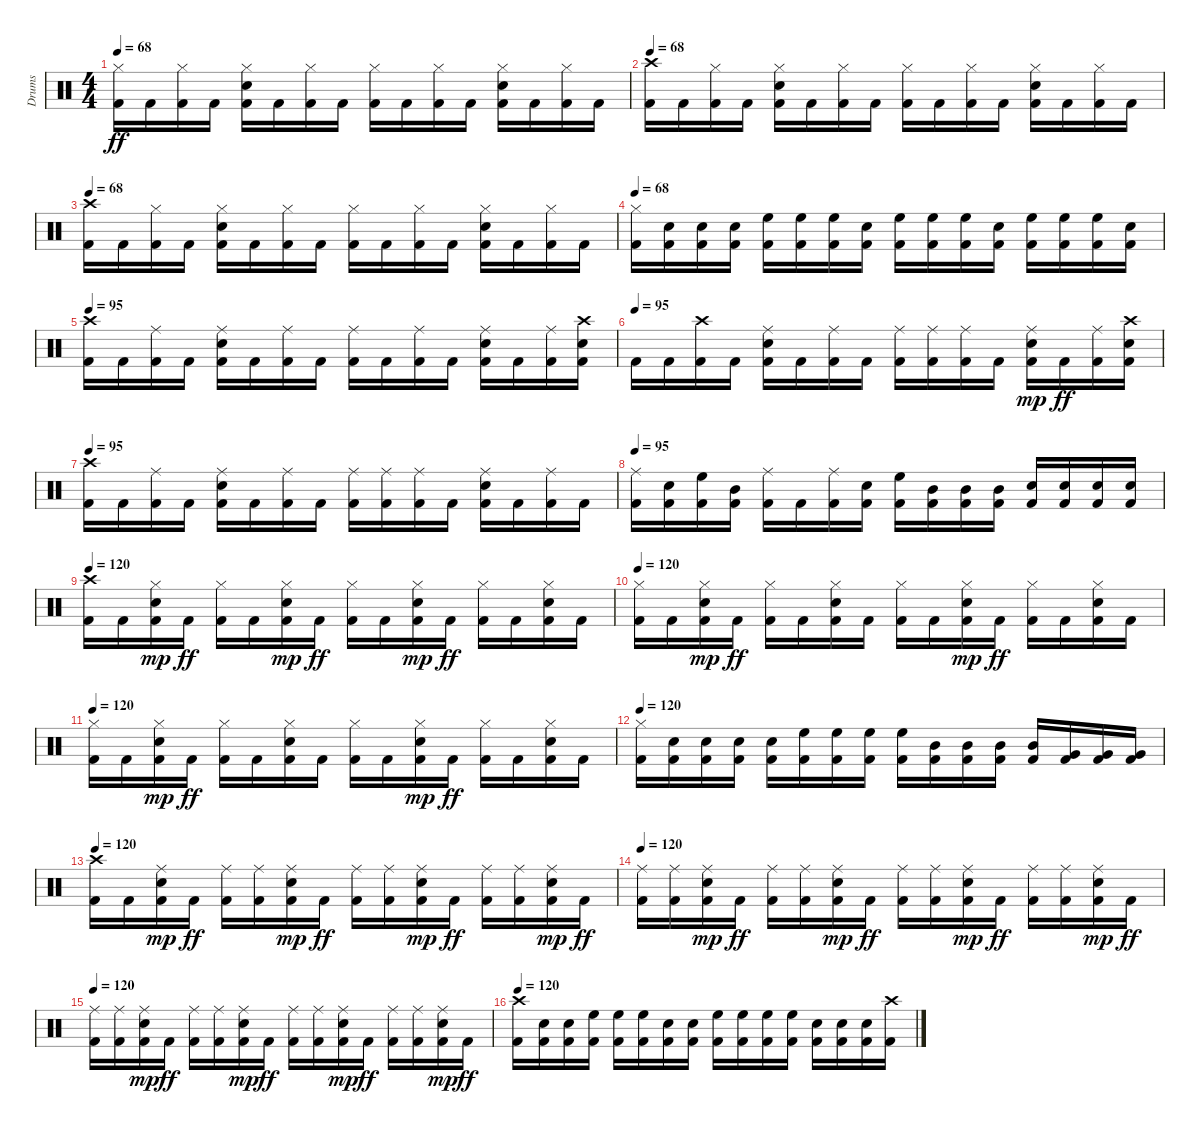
\track ("Drums" "Drums") {instrument percussion}
\staff {score}
\articulation defaults
\ts (4 4)
\tempo 68
\clef neutral
\ks c
("Hi-Hat (closed)" "Kick (hit) 2").16{dy ff} "Kick (hit) 2".16 ("Hi-Hat (closed)" "Kick (hit) 2").16 "Kick (hit) 2".16 ("Kick (hit) 2" "Snare (hit) 2" "Hi-Hat (closed)").16 "Kick (hit) 2".16 ("Hi-Hat (closed)" "Kick (hit) 2").16 "Kick (hit) 2".16 ("Hi-Hat (closed)" "Kick (hit) 2").16 "Kick (hit) 2".16 ("Hi-Hat (closed)" "Kick (hit) 2").16 "Kick (hit) 2".16 ("Kick (hit) 2" "Snare (hit) 2" "Hi-Hat (closed)").16 "Kick (hit) 2".16 ("Hi-Hat (closed)" "Kick (hit) 2").16 "Kick (hit) 2".16 |
\tempo 68
("Crash high (hit)" "Kick (hit) 2").16 "Kick (hit) 2".16 ("Hi-Hat (closed)" "Kick (hit) 2").16 "Kick (hit) 2".16 ("Kick (hit) 2" "Snare (hit) 2" "Hi-Hat (closed)").16 "Kick (hit) 2".16 ("Hi-Hat (closed)" "Kick (hit) 2").16 "Kick (hit) 2".16 ("Hi-Hat (closed)" "Kick (hit) 2").16 "Kick (hit) 2".16 ("Hi-Hat (closed)" "Kick (hit) 2").16 "Kick (hit) 2".16 ("Kick (hit) 2" "Snare (hit) 2" "Hi-Hat (closed)").16 "Kick (hit) 2".16 ("Hi-Hat (closed)" "Kick (hit) 2").16 "Kick (hit) 2".16 |
\tempo 68
("Crash high (hit)" "Kick (hit) 2").16 "Kick (hit) 2".16 ("Hi-Hat (closed)" "Kick (hit) 2").16 "Kick (hit) 2".16 ("Kick (hit) 2" "Snare (hit) 2" "Hi-Hat (closed)").16 "Kick (hit) 2".16 ("Hi-Hat (closed)" "Kick (hit) 2").16 "Kick (hit) 2".16 ("Hi-Hat (closed)" "Kick (hit) 2").16 "Kick (hit) 2".16 ("Hi-Hat (closed)" "Kick (hit) 2").16 "Kick (hit) 2".16 ("Kick (hit) 2" "Snare (hit) 2" "Hi-Hat (closed)").16 "Kick (hit) 2".16 ("Hi-Hat (closed)" "Kick (hit) 2").16 "Kick (hit) 2".16 |
\tempo 68
("Hi-Hat (closed)" "Kick (hit) 2").16 ("Snare (hit) 2" "Kick (hit) 2").16 ("Snare (hit) 2" "Kick (hit) 2").16 ("Snare (hit) 2" "Kick (hit) 2").16 ("High Floor Tom (hit)" "Kick (hit) 2").16 ("High Floor Tom (hit)" "Kick (hit) 2").16 ("High Floor Tom (hit)" "Kick (hit) 2").16 ("Snare (hit) 2" "Kick (hit) 2").16 ("High Floor Tom (hit)" "Kick (hit) 2").16 ("High Floor Tom (hit)" "Kick (hit) 2").16 ("High Floor Tom (hit)" "Kick (hit) 2").16 ("Snare (hit) 2" "Kick (hit) 2").16 ("High Floor Tom (hit)" "Kick (hit) 2").16 ("High Floor Tom (hit)" "Kick (hit) 2").16 ("High Floor Tom (hit)" "Kick (hit) 2").16 ("Snare (hit) 2" "Kick (hit) 2").16 |
\tempo 95
("Crash high (hit)" "Kick (hit) 2").16 "Kick (hit) 2".16 ("Ride (middle)" "Kick (hit) 2").16 "Kick (hit) 2".16 ("Kick (hit) 2" "Ride (middle)" "Snare (hit) 2").16 "Kick (hit) 2".16 ("Ride (middle)" "Kick (hit) 2").16 "Kick (hit) 2".16 ("Ride (middle)" "Kick (hit) 2").16 "Kick (hit) 2".16 ("Ride (middle)" "Kick (hit) 2").16 "Kick (hit) 2".16 ("Snare (hit) 2" "Ride (middle)" "Kick (hit) 2").16 "Kick (hit) 2".16 ("Ride (middle)" "Kick (hit) 2").16 ("Kick (hit) 2" "Snare (hit) 2" "Crash high (hit)").16 |
\tempo (95)
"Kick (hit) 2".16 "Kick (hit) 2".16 ("Crash high (hit)" "Kick (hit) 2").16 "Kick (hit) 2".16 ("Kick (hit) 2" "Snare (hit) 2" "Ride (middle)").16 "Kick (hit) 2".16 ("Ride (middle)" "Kick (hit) 2").16 "Kick (hit) 2".16 ("Ride (middle)" "Kick (hit) 2").16 ("Ride (middle)" "Kick (hit) 2").16 ("Ride (middle)" "Kick (hit) 2").16 "Kick (hit) 2".16 ("Kick (hit) 2" "Snare (hit) 2" "Ride (middle)").16{dy mp} "Kick (hit) 2".16{dy ff} ("Ride (middle)" "Kick (hit) 2").16 ("Kick (hit) 2" "Snare (hit) 2" "Crash high (hit)").16 |
\tempo 95
("Crash high (hit)" "Kick (hit) 2").16 "Kick (hit) 2".16 ("Ride (middle)" "Kick (hit) 2").16 "Kick (hit) 2".16 ("Kick (hit) 2" "Ride (middle)" "Snare (hit) 2").16 "Kick (hit) 2".16 ("Ride (middle)" "Kick (hit) 2").16 "Kick (hit) 2".16 ("Ride (middle)" "Kick (hit) 2").16 ("Ride (middle)" "Kick (hit) 2").16 ("Ride (middle)" "Kick (hit) 2").16 "Kick (hit) 2".16 ("Kick (hit) 2" "Ride (middle)" "Snare (hit) 2").16 "Kick (hit) 2".16 ("Ride (middle)" "Kick (hit) 2").16 "Kick (hit) 2".16 |
\tempo 95
("Ride (middle)" "Kick (hit) 2").16 ("Snare (hit) 2" "Kick (hit) 2").16 ("High Floor Tom (hit)" "Kick (hit) 2").16 ("Mid Tom (hit)" "Kick (hit) 2").16 ("Ride (middle)" "Kick (hit) 2").16 "Kick (hit) 2".16 ("Ride (middle)" "Kick (hit) 2").16 ("Snare (hit) 2" "Kick (hit) 2").16 ("High Floor Tom (hit)" "Kick (hit) 2").16 ("Mid Tom (hit)" "Kick (hit) 2").16 ("Mid Tom (hit)" "Kick (hit) 2").16 ("Mid Tom (hit)" "Kick (hit) 2").16 ("Snare (hit) 2" "Kick (hit) 2").16 ("Snare (hit) 2" "Kick (hit) 2").16 ("Snare (hit) 2" "Kick (hit) 2").16 ("Snare (hit) 2" "Kick (hit) 2").16 |
\tempo 120
("Crash high (hit)" "Kick (hit) 2").16 "Kick (hit) 2".16 ("Kick (hit) 2" "Snare (hit) 2" "Hi-Hat (closed)").16{dy mp} "Kick (hit) 2".16{dy ff} ("Kick (hit) 2" "Hi-Hat (closed)").16 "Kick (hit) 2".16 ("Kick (hit) 2" "Snare (hit) 2" "Hi-Hat (closed)").16{dy mp} "Kick (hit) 2".16{dy ff} ("Hi-Hat (closed)" "Kick (hit) 2").16 "Kick (hit) 2".16 ("Kick (hit) 2" "Snare (hit) 2" "Hi-Hat (closed)").16{dy mp} "Kick (hit) 2".16{dy ff} ("Kick (hit) 2" "Hi-Hat (closed)").16 "Kick (hit) 2".16 ("Hi-Hat (closed)" "Snare (hit) 2" "Kick (hit) 2").16 "Kick (hit) 2".16 |
\tempo 120
("Hi-Hat (closed)" "Kick (hit) 2").16 "Kick (hit) 2".16 ("Kick (hit) 2" "Snare (hit) 2" "Hi-Hat (closed)").16{dy mp} "Kick (hit) 2".16{dy ff} ("Kick (hit) 2" "Hi-Hat (closed)").16 "Kick (hit) 2".16 ("Hi-Hat (closed)" "Snare (hit) 2" "Kick (hit) 2").16 "Kick (hit) 2".16 ("Hi-Hat (closed)" "Kick (hit) 2").16 "Kick (hit) 2".16 ("Kick (hit) 2" "Snare (hit) 2" "Hi-Hat (closed)").16{dy mp} "Kick (hit) 2".16{dy ff} ("Kick (hit) 2" "Hi-Hat (closed)").16 "Kick (hit) 2".16 ("Hi-Hat (closed)" "Snare (hit) 2" "Kick (hit) 2").16 "Kick (hit) 2".16 |
\tempo 120
("Hi-Hat (closed)" "Kick (hit) 2").16 "Kick (hit) 2".16 ("Kick (hit) 2" "Snare (hit) 2" "Hi-Hat (closed)").16{dy mp} "Kick (hit) 2".16{dy ff} ("Kick (hit) 2" "Hi-Hat (closed)").16 "Kick (hit) 2".16 ("Hi-Hat (closed)" "Snare (hit) 2" "Kick (hit) 2").16 "Kick (hit) 2".16 ("Hi-Hat (closed)" "Kick (hit) 2").16 "Kick (hit) 2".16 ("Kick (hit) 2" "Snare (hit) 2" "Hi-Hat (closed)").16{dy mp} "Kick (hit) 2".16{dy ff} ("Kick (hit) 2" "Hi-Hat (closed)").16 "Kick (hit) 2".16 ("Hi-Hat (closed)" "Snare (hit) 2" "Kick (hit) 2").16 "Kick (hit) 2".16 |
\tempo 120
("Hi-Hat (closed)" "Kick (hit) 2").16 ("Snare (hit) 2" "Kick (hit) 2").16 ("Snare (hit) 2" "Kick (hit) 2").16 ("Snare (hit) 2" "Kick (hit) 2").16 ("Snare (hit) 2" "Kick (hit) 2").16 ("High Floor Tom (hit)" "Kick (hit) 2").16 ("High Floor Tom (hit)" "Kick (hit) 2").16 ("High Floor Tom (hit)" "Kick (hit) 2").16 ("High Floor Tom (hit)" "Kick (hit) 2").16 ("Kick (hit) 2" "Mid Tom (hit)").16 ("Mid Tom (hit)" "Kick (hit) 2").16 ("Mid Tom (hit)" "Kick (hit) 2").16 ("Mid Tom (hit)" "Kick (hit) 2").16 ("Very Low Tom (hit)" "Kick (hit) 2").16 ("Very Low Tom (hit)" "Kick (hit) 2").16 ("Very Low Tom (hit)" "Kick (hit) 2").16 |
\tempo 120
("Crash high (hit)" "Kick (hit) 2").16 "Kick (hit) 2".16 ("Kick (hit) 2" "Snare (hit) 2" "Ride (middle)").16{dy mp} "Kick (hit) 2".16{dy ff} ("Ride (middle)" "Kick (hit) 2").16 ("Ride (middle)" "Kick (hit) 2").16 ("Kick (hit) 2" "Snare (hit) 2" "Ride (middle)").16{dy mp} "Kick (hit) 2".16{dy ff} ("Ride (middle)" "Kick (hit) 2").16 ("Ride (middle)" "Kick (hit) 2").16 ("Kick (hit) 2" "Snare (hit) 2" "Ride (middle)").16{dy mp} "Kick (hit) 2".16{dy ff} ("Ride (middle)" "Kick (hit) 2").16 ("Ride (middle)" "Kick (hit) 2").16 ("Kick (hit) 2" "Snare (hit) 2" "Ride (middle)").16{dy mp} "Kick (hit) 2".16{dy ff} |
\tempo 120
("Ride (middle)" "Kick (hit) 2").16 ("Ride (middle)" "Kick (hit) 2").16 ("Kick (hit) 2" "Snare (hit) 2" "Ride (middle)").16{dy mp} "Kick (hit) 2".16{dy ff} ("Ride (middle)" "Kick (hit) 2").16 ("Ride (middle)" "Kick (hit) 2").16 ("Kick (hit) 2" "Snare (hit) 2" "Ride (middle)").16{dy mp} "Kick (hit) 2".16{dy ff} ("Ride (middle)" "Kick (hit) 2").16 ("Ride (middle)" "Kick (hit) 2").16 ("Kick (hit) 2" "Snare (hit) 2" "Ride (middle)").16{dy mp} "Kick (hit) 2".16{dy ff} ("Ride (middle)" "Kick (hit) 2").16 ("Ride (middle)" "Kick (hit) 2").16 ("Kick (hit) 2" "Snare (hit) 2" "Ride (middle)").16{dy mp} "Kick (hit) 2".16{dy ff} |
\tempo 120
("Ride (middle)" "Kick (hit) 2").16 ("Ride (middle)" "Kick (hit) 2").16 ("Kick (hit) 2" "Snare (hit) 2" "Ride (middle)").16{dy mp} "Kick (hit) 2".16{dy ff} ("Ride (middle)" "Kick (hit) 2").16 ("Ride (middle)" "Kick (hit) 2").16 ("Kick (hit) 2" "Snare (hit) 2" "Ride (middle)").16{dy mp} "Kick (hit) 2".16{dy ff} ("Ride (middle)" "Kick (hit) 2").16 ("Ride (middle)" "Kick (hit) 2").16 ("Kick (hit) 2" "Snare (hit) 2" "Ride (middle)").16{dy mp} "Kick (hit) 2".16{dy ff} ("Ride (middle)" "Kick (hit) 2").16 ("Ride (middle)" "Kick (hit) 2").16 ("Kick (hit) 2" "Snare (hit) 2" "Ride (middle)").16{dy mp} "Kick (hit) 2".16{dy ff} |
\tempo 120
("Crash high (hit)" "Kick (hit) 2").16 ("Snare (hit) 2" "Kick (hit) 2").16 ("Snare (hit) 2" "Kick (hit) 2").16 ("High Floor Tom (hit)" "Kick (hit) 2").16 ("High Floor Tom (hit)" "Kick (hit) 2").16 ("High Floor Tom (hit)" "Kick (hit) 2").16 ("Snare (hit) 2" "Kick (hit) 2").16 ("Snare (hit) 2" "Kick (hit) 2").16 ("High Floor Tom (hit)" "Kick (hit) 2").16 ("High Floor Tom (hit)" "Kick (hit) 2").16 ("High Floor Tom (hit)" "Kick (hit) 2").16 ("High Floor Tom (hit)" "Kick (hit) 2").16 ("Snare (hit) 2" "Kick (hit) 2").16 ("Snare (hit) 2" "Kick (hit) 2").16 ("Snare (hit) 2" "Kick (hit) 2").16 ("Crash high (hit)" "Kick (hit) 2").16
